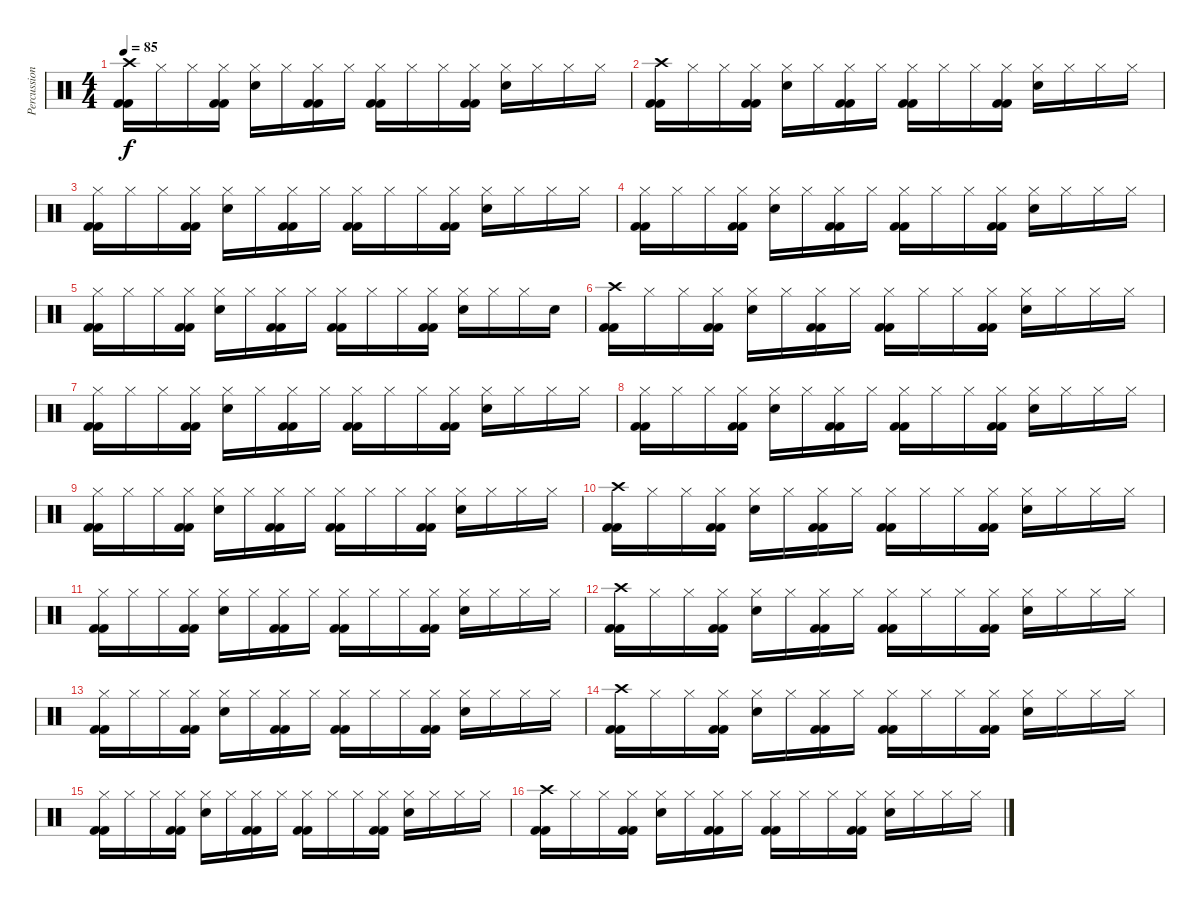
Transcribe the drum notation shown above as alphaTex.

\track ("Percussion" "Percussion") {instrument percussion}
\staff {score}
\articulation defaults
\ts (4 4)
\tempo 85
\clef neutral
\ks c
("Crash high (hit)" "Kick (hit) 2" "Kick (hit) 2").16{dy f} "Hi-Hat (closed)".16 "Hi-Hat (closed)".16 ("Kick (hit) 2" "Hi-Hat (closed)" "Kick (hit) 2").16 ("Hi-Hat (closed)" "Electric Snare (hit)").16 "Hi-Hat (closed)".16 ("Kick (hit) 2" "Hi-Hat (closed)" "Kick (hit) 2").16 "Hi-Hat (closed)".16 ("Kick (hit) 2" "Hi-Hat (closed)" "Kick (hit) 2").16 "Hi-Hat (closed)".16 "Hi-Hat (closed)".16 ("Kick (hit) 2" "Hi-Hat (closed)" "Kick (hit) 2").16 ("Hi-Hat (closed)" "Electric Snare (hit)").16 "Hi-Hat (closed)".16 "Hi-Hat (closed)".16 "Hi-Hat (closed)".16 |
("Crash high (hit)" "Kick (hit) 2" "Kick (hit) 2").16 "Hi-Hat (closed)".16 "Hi-Hat (closed)".16 ("Kick (hit) 2" "Hi-Hat (closed)" "Kick (hit) 2").16 ("Hi-Hat (closed)" "Electric Snare (hit)").16 "Hi-Hat (closed)".16 ("Kick (hit) 2" "Hi-Hat (closed)" "Kick (hit) 2").16 "Hi-Hat (closed)".16 ("Kick (hit) 2" "Hi-Hat (closed)" "Kick (hit) 2").16 "Hi-Hat (closed)".16 "Hi-Hat (closed)".16 ("Kick (hit) 2" "Hi-Hat (closed)" "Kick (hit) 2").16 ("Hi-Hat (closed)" "Electric Snare (hit)").16 "Hi-Hat (closed)".16 "Hi-Hat (closed)".16 "Hi-Hat (closed)".16 |
("Kick (hit) 2" "Hi-Hat (closed)" "Kick (hit) 2").16 "Hi-Hat (closed)".16 "Hi-Hat (closed)".16 ("Kick (hit) 2" "Hi-Hat (closed)" "Kick (hit) 2").16 ("Hi-Hat (closed)" "Electric Snare (hit)").16 "Hi-Hat (closed)".16 ("Kick (hit) 2" "Hi-Hat (closed)" "Kick (hit) 2").16 "Hi-Hat (closed)".16 ("Kick (hit) 2" "Hi-Hat (closed)" "Kick (hit) 2").16 "Hi-Hat (closed)".16 "Hi-Hat (closed)".16 ("Kick (hit) 2" "Hi-Hat (closed)" "Kick (hit) 2").16 ("Hi-Hat (closed)" "Electric Snare (hit)").16 "Hi-Hat (closed)".16 "Hi-Hat (closed)".16 "Hi-Hat (closed)".16 |
("Kick (hit) 2" "Hi-Hat (closed)" "Kick (hit) 2").16 "Hi-Hat (closed)".16 "Hi-Hat (closed)".16 ("Kick (hit) 2" "Hi-Hat (closed)" "Kick (hit) 2").16 ("Hi-Hat (closed)" "Electric Snare (hit)").16 "Hi-Hat (closed)".16 ("Kick (hit) 2" "Hi-Hat (closed)" "Kick (hit) 2").16 "Hi-Hat (closed)".16 ("Kick (hit) 2" "Hi-Hat (closed)" "Kick (hit) 2").16 "Hi-Hat (closed)".16 "Hi-Hat (closed)".16 ("Kick (hit) 2" "Hi-Hat (closed)" "Kick (hit) 2").16 ("Hi-Hat (closed)" "Electric Snare (hit)").16 "Hi-Hat (closed)".16 "Hi-Hat (closed)".16 "Hi-Hat (closed)".16 |
("Kick (hit) 2" "Hi-Hat (closed)" "Kick (hit) 2").16 "Hi-Hat (closed)".16 "Hi-Hat (closed)".16 ("Kick (hit) 2" "Hi-Hat (closed)" "Kick (hit) 2").16 ("Hi-Hat (closed)" "Electric Snare (hit)").16 "Hi-Hat (closed)".16 ("Kick (hit) 2" "Hi-Hat (closed)" "Kick (hit) 2").16 "Hi-Hat (closed)".16 ("Kick (hit) 2" "Hi-Hat (closed)" "Kick (hit) 2").16 "Hi-Hat (closed)".16 "Hi-Hat (closed)".16 ("Kick (hit) 2" "Hi-Hat (closed)" "Kick (hit) 2").16 ("Hi-Hat (closed)" "Electric Snare (hit)").16 "Hi-Hat (closed)".16 "Hi-Hat (closed)".16 "Electric Snare (hit)".16 |
("Crash high (hit)" "Kick (hit) 2" "Kick (hit) 2").16 "Hi-Hat (closed)".16 "Hi-Hat (closed)".16 ("Kick (hit) 2" "Hi-Hat (closed)" "Kick (hit) 2").16 ("Hi-Hat (closed)" "Electric Snare (hit)").16 "Hi-Hat (closed)".16 ("Kick (hit) 2" "Hi-Hat (closed)" "Kick (hit) 2").16 "Hi-Hat (closed)".16 ("Kick (hit) 2" "Hi-Hat (closed)" "Kick (hit) 2").16 "Hi-Hat (closed)".16 "Hi-Hat (closed)".16 ("Kick (hit) 2" "Hi-Hat (closed)" "Kick (hit) 2").16 ("Hi-Hat (closed)" "Electric Snare (hit)").16 "Hi-Hat (closed)".16 "Hi-Hat (closed)".16 "Hi-Hat (closed)".16 |
("Kick (hit) 2" "Hi-Hat (closed)" "Kick (hit) 2").16 "Hi-Hat (closed)".16 "Hi-Hat (closed)".16 ("Kick (hit) 2" "Hi-Hat (closed)" "Kick (hit) 2").16 ("Hi-Hat (closed)" "Electric Snare (hit)").16 "Hi-Hat (closed)".16 ("Kick (hit) 2" "Hi-Hat (closed)" "Kick (hit) 2").16 "Hi-Hat (closed)".16 ("Kick (hit) 2" "Hi-Hat (closed)" "Kick (hit) 2").16 "Hi-Hat (closed)".16 "Hi-Hat (closed)".16 ("Kick (hit) 2" "Hi-Hat (closed)" "Kick (hit) 2").16 ("Hi-Hat (closed)" "Electric Snare (hit)").16 "Hi-Hat (closed)".16 "Hi-Hat (closed)".16 "Hi-Hat (closed)".16 |
("Kick (hit) 2" "Hi-Hat (closed)" "Kick (hit) 2").16 "Hi-Hat (closed)".16 "Hi-Hat (closed)".16 ("Kick (hit) 2" "Hi-Hat (closed)" "Kick (hit) 2").16 ("Hi-Hat (closed)" "Electric Snare (hit)").16 "Hi-Hat (closed)".16 ("Kick (hit) 2" "Hi-Hat (closed)" "Kick (hit) 2").16 "Hi-Hat (closed)".16 ("Kick (hit) 2" "Hi-Hat (closed)" "Kick (hit) 2").16 "Hi-Hat (closed)".16 "Hi-Hat (closed)".16 ("Kick (hit) 2" "Hi-Hat (closed)" "Kick (hit) 2").16 ("Hi-Hat (closed)" "Electric Snare (hit)").16 "Hi-Hat (closed)".16 "Hi-Hat (closed)".16 "Hi-Hat (closed)".16 |
("Kick (hit) 2" "Hi-Hat (closed)" "Kick (hit) 2").16 "Hi-Hat (closed)".16 "Hi-Hat (closed)".16 ("Kick (hit) 2" "Hi-Hat (closed)" "Kick (hit) 2").16 ("Hi-Hat (closed)" "Electric Snare (hit)").16 "Hi-Hat (closed)".16 ("Kick (hit) 2" "Hi-Hat (closed)" "Kick (hit) 2").16 "Hi-Hat (closed)".16 ("Kick (hit) 2" "Hi-Hat (closed)" "Kick (hit) 2").16 "Hi-Hat (closed)".16 "Hi-Hat (closed)".16 ("Kick (hit) 2" "Hi-Hat (closed)" "Kick (hit) 2").16 ("Hi-Hat (closed)" "Electric Snare (hit)").16 "Hi-Hat (closed)".16 "Hi-Hat (closed)".16 "Hi-Hat (closed)".16 |
("Crash high (hit)" "Kick (hit) 2" "Kick (hit) 2").16 "Hi-Hat (closed)".16 "Hi-Hat (closed)".16 ("Kick (hit) 2" "Hi-Hat (closed)" "Kick (hit) 2").16 ("Hi-Hat (closed)" "Electric Snare (hit)").16 "Hi-Hat (closed)".16 ("Kick (hit) 2" "Hi-Hat (closed)" "Kick (hit) 2").16 "Hi-Hat (closed)".16 ("Kick (hit) 2" "Hi-Hat (closed)" "Kick (hit) 2").16 "Hi-Hat (closed)".16 "Hi-Hat (closed)".16 ("Kick (hit) 2" "Hi-Hat (closed)" "Kick (hit) 2").16 ("Hi-Hat (closed)" "Electric Snare (hit)").16 "Hi-Hat (closed)".16 "Hi-Hat (closed)".16 "Hi-Hat (closed)".16 |
("Kick (hit) 2" "Hi-Hat (closed)" "Kick (hit) 2").16 "Hi-Hat (closed)".16 "Hi-Hat (closed)".16 ("Kick (hit) 2" "Hi-Hat (closed)" "Kick (hit) 2").16 ("Hi-Hat (closed)" "Electric Snare (hit)").16 "Hi-Hat (closed)".16 ("Kick (hit) 2" "Hi-Hat (closed)" "Kick (hit) 2").16 "Hi-Hat (closed)".16 ("Kick (hit) 2" "Hi-Hat (closed)" "Kick (hit) 2").16 "Hi-Hat (closed)".16 "Hi-Hat (closed)".16 ("Kick (hit) 2" "Hi-Hat (closed)" "Kick (hit) 2").16 ("Hi-Hat (closed)" "Electric Snare (hit)").16 "Hi-Hat (closed)".16 "Hi-Hat (closed)".16 "Hi-Hat (closed)".16 |
("Crash high (hit)" "Kick (hit) 2" "Kick (hit) 2").16 "Hi-Hat (closed)".16 "Hi-Hat (closed)".16 ("Kick (hit) 2" "Hi-Hat (closed)" "Kick (hit) 2").16 ("Hi-Hat (closed)" "Electric Snare (hit)").16 "Hi-Hat (closed)".16 ("Kick (hit) 2" "Hi-Hat (closed)" "Kick (hit) 2").16 "Hi-Hat (closed)".16 ("Kick (hit) 2" "Hi-Hat (closed)" "Kick (hit) 2").16 "Hi-Hat (closed)".16 "Hi-Hat (closed)".16 ("Kick (hit) 2" "Hi-Hat (closed)" "Kick (hit) 2").16 ("Hi-Hat (closed)" "Electric Snare (hit)").16 "Hi-Hat (closed)".16 "Hi-Hat (closed)".16 "Hi-Hat (closed)".16 |
("Kick (hit) 2" "Hi-Hat (closed)" "Kick (hit) 2").16 "Hi-Hat (closed)".16 "Hi-Hat (closed)".16 ("Kick (hit) 2" "Hi-Hat (closed)" "Kick (hit) 2").16 ("Hi-Hat (closed)" "Electric Snare (hit)").16 "Hi-Hat (closed)".16 ("Kick (hit) 2" "Hi-Hat (closed)" "Kick (hit) 2").16 "Hi-Hat (closed)".16 ("Kick (hit) 2" "Hi-Hat (closed)" "Kick (hit) 2").16 "Hi-Hat (closed)".16 "Hi-Hat (closed)".16 ("Kick (hit) 2" "Hi-Hat (closed)" "Kick (hit) 2").16 ("Hi-Hat (closed)" "Electric Snare (hit)").16 "Hi-Hat (closed)".16 "Hi-Hat (closed)".16 "Hi-Hat (closed)".16 |
("Crash high (hit)" "Kick (hit) 2" "Kick (hit) 2").16 "Hi-Hat (closed)".16 "Hi-Hat (closed)".16 ("Kick (hit) 2" "Hi-Hat (closed)" "Kick (hit) 2").16 ("Hi-Hat (closed)" "Electric Snare (hit)").16 "Hi-Hat (closed)".16 ("Kick (hit) 2" "Hi-Hat (closed)" "Kick (hit) 2").16 "Hi-Hat (closed)".16 ("Kick (hit) 2" "Hi-Hat (closed)" "Kick (hit) 2").16 "Hi-Hat (closed)".16 "Hi-Hat (closed)".16 ("Kick (hit) 2" "Hi-Hat (closed)" "Kick (hit) 2").16 ("Hi-Hat (closed)" "Electric Snare (hit)").16 "Hi-Hat (closed)".16 "Hi-Hat (closed)".16 "Hi-Hat (closed)".16 |
("Kick (hit) 2" "Hi-Hat (closed)" "Kick (hit) 2").16 "Hi-Hat (closed)".16 "Hi-Hat (closed)".16 ("Kick (hit) 2" "Hi-Hat (closed)" "Kick (hit) 2").16 ("Hi-Hat (closed)" "Electric Snare (hit)").16 "Hi-Hat (closed)".16 ("Kick (hit) 2" "Hi-Hat (closed)" "Kick (hit) 2").16 "Hi-Hat (closed)".16 ("Kick (hit) 2" "Hi-Hat (closed)" "Kick (hit) 2").16 "Hi-Hat (closed)".16 "Hi-Hat (closed)".16 ("Kick (hit) 2" "Hi-Hat (closed)" "Kick (hit) 2").16 ("Hi-Hat (closed)" "Electric Snare (hit)").16 "Hi-Hat (closed)".16 "Hi-Hat (closed)".16 "Hi-Hat (closed)".16 |
("Crash high (hit)" "Kick (hit) 2" "Kick (hit) 2").16 "Hi-Hat (closed)".16 "Hi-Hat (closed)".16 ("Kick (hit) 2" "Hi-Hat (closed)" "Kick (hit) 2").16 ("Hi-Hat (closed)" "Electric Snare (hit)").16 "Hi-Hat (closed)".16 ("Kick (hit) 2" "Hi-Hat (closed)" "Kick (hit) 2").16 "Hi-Hat (closed)".16 ("Kick (hit) 2" "Hi-Hat (closed)" "Kick (hit) 2").16 "Hi-Hat (closed)".16 "Hi-Hat (closed)".16 ("Kick (hit) 2" "Hi-Hat (closed)" "Kick (hit) 2").16 ("Hi-Hat (closed)" "Electric Snare (hit)").16 "Hi-Hat (closed)".16 "Hi-Hat (closed)".16 "Hi-Hat (closed)".16
